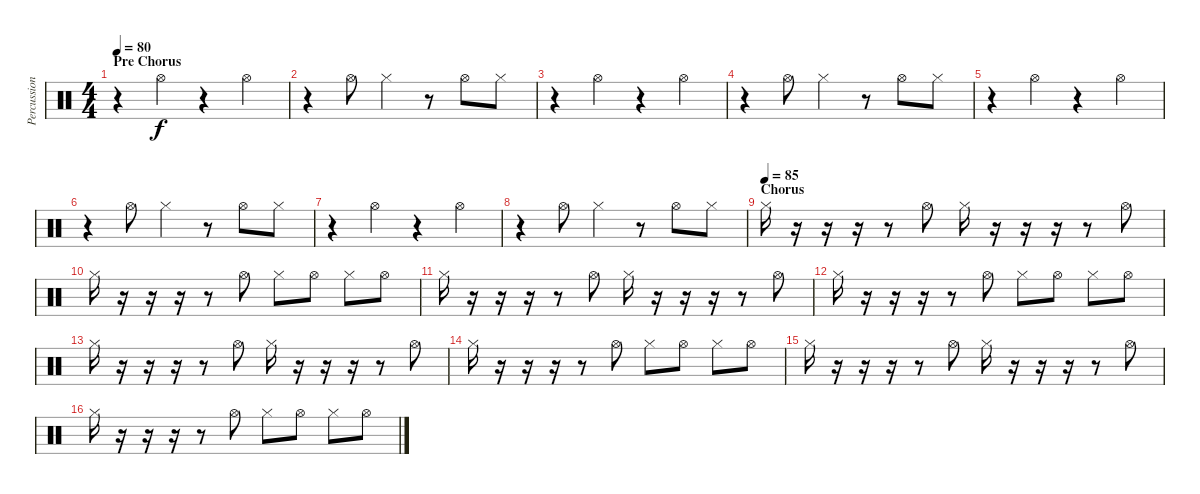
\track ("Percussion II . Jeremiah Green" "Percussion") {instrument percussion}
\staff {score}
\articulation defaults
\ts (4 4)
\section ("" "Pre Chorus")
\tempo 80
\clef neutral
\ks c
r.4{dy f} "Hi-Hat (open)".4 r.4 "Hi-Hat (open)".4 |
r.4 "Hi-Hat (open)".8 "Hi-Hat (closed)".4 r.8 "Hi-Hat (open)".8 "Hi-Hat (closed)".8 |
r.4 "Hi-Hat (open)".4 r.4 "Hi-Hat (open)".4 |
r.4 "Hi-Hat (open)".8 "Hi-Hat (closed)".4 r.8 "Hi-Hat (open)".8 "Hi-Hat (closed)".8 |
r.4 "Hi-Hat (open)".4 r.4 "Hi-Hat (open)".4 |
r.4 "Hi-Hat (open)".8 "Hi-Hat (closed)".4 r.8 "Hi-Hat (open)".8 "Hi-Hat (closed)".8 |
r.4 "Hi-Hat (open)".4 r.4 "Hi-Hat (open)".4 |
r.4 "Hi-Hat (open)".8 "Hi-Hat (closed)".4 r.8 "Hi-Hat (open)".8 "Hi-Hat (closed)".8 |
\section ("" "Chorus")
\tempo (85)
"Hi-Hat (closed)".16 r.16 r.16 r.16 r.8 "Hi-Hat (open)".8 "Hi-Hat (closed)".16 r.16 r.16 r.16 r.8 "Hi-Hat (open)".8 |
"Hi-Hat (closed)".16 r.16 r.16 r.16 r.8 "Hi-Hat (open)".8 "Hi-Hat (closed)".8 "Hi-Hat (open)".8 "Hi-Hat (closed)".8 "Hi-Hat (open)".8 |
"Hi-Hat (closed)".16 r.16 r.16 r.16 r.8 "Hi-Hat (open)".8 "Hi-Hat (closed)".16 r.16 r.16 r.16 r.8 "Hi-Hat (open)".8 |
"Hi-Hat (closed)".16 r.16 r.16 r.16 r.8 "Hi-Hat (open)".8 "Hi-Hat (closed)".8 "Hi-Hat (open)".8 "Hi-Hat (closed)".8 "Hi-Hat (open)".8 |
"Hi-Hat (closed)".16 r.16 r.16 r.16 r.8 "Hi-Hat (open)".8 "Hi-Hat (closed)".16 r.16 r.16 r.16 r.8 "Hi-Hat (open)".8 |
"Hi-Hat (closed)".16 r.16 r.16 r.16 r.8 "Hi-Hat (open)".8 "Hi-Hat (closed)".8 "Hi-Hat (open)".8 "Hi-Hat (closed)".8 "Hi-Hat (open)".8 |
"Hi-Hat (closed)".16 r.16 r.16 r.16 r.8 "Hi-Hat (open)".8 "Hi-Hat (closed)".16 r.16 r.16 r.16 r.8 "Hi-Hat (open)".8 |
"Hi-Hat (closed)".16 r.16 r.16 r.16 r.8 "Hi-Hat (open)".8 "Hi-Hat (closed)".8 "Hi-Hat (open)".8 "Hi-Hat (closed)".8 "Hi-Hat (open)".8
